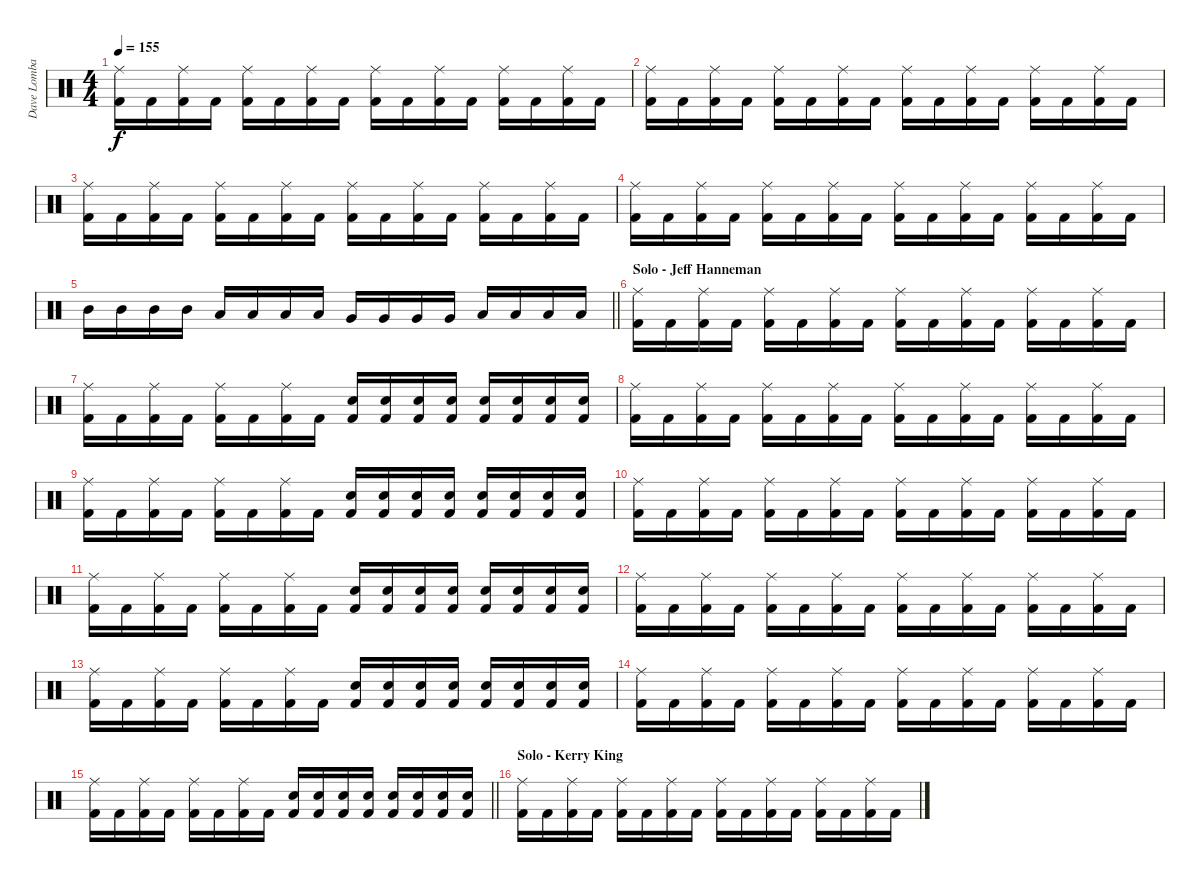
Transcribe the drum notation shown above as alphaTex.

\track ("Dave Lombardo (Drums)" "Dave Lomba") {instrument percussion}
\staff {score}
\articulation defaults
\ts (4 4)
\tempo 155
\clef neutral
\ks c
("Ride (middle)" "Kick (hit) 2").16{dy f} "Kick (hit) 2".16 ("Ride (middle)" "Kick (hit) 2").16 "Kick (hit) 2".16 ("Ride (middle)" "Kick (hit) 2").16 "Kick (hit) 2".16 ("Ride (middle)" "Kick (hit) 2").16 "Kick (hit) 2".16 ("Ride (middle)" "Kick (hit) 2").16 "Kick (hit) 2".16 ("Ride (middle)" "Kick (hit) 2").16 "Kick (hit) 2".16 ("Ride (middle)" "Kick (hit) 2").16 "Kick (hit) 2".16 ("Ride (middle)" "Kick (hit) 2").16 "Kick (hit) 2".16 |
("Ride (middle)" "Kick (hit) 2").16 "Kick (hit) 2".16 ("Ride (middle)" "Kick (hit) 2").16 "Kick (hit) 2".16 ("Ride (middle)" "Kick (hit) 2").16 "Kick (hit) 2".16 ("Ride (middle)" "Kick (hit) 2").16 "Kick (hit) 2".16 ("Ride (middle)" "Kick (hit) 2").16 "Kick (hit) 2".16 ("Ride (middle)" "Kick (hit) 2").16 "Kick (hit) 2".16 ("Ride (middle)" "Kick (hit) 2").16 "Kick (hit) 2".16 ("Ride (middle)" "Kick (hit) 2").16 "Kick (hit) 2".16 |
("Ride (middle)" "Kick (hit) 2").16 "Kick (hit) 2".16 ("Ride (middle)" "Kick (hit) 2").16 "Kick (hit) 2".16 ("Ride (middle)" "Kick (hit) 2").16 "Kick (hit) 2".16 ("Ride (middle)" "Kick (hit) 2").16 "Kick (hit) 2".16 ("Ride (middle)" "Kick (hit) 2").16 "Kick (hit) 2".16 ("Ride (middle)" "Kick (hit) 2").16 "Kick (hit) 2".16 ("Ride (middle)" "Kick (hit) 2").16 "Kick (hit) 2".16 ("Ride (middle)" "Kick (hit) 2").16 "Kick (hit) 2".16 |
("Ride (middle)" "Kick (hit) 2").16 "Kick (hit) 2".16 ("Ride (middle)" "Kick (hit) 2").16 "Kick (hit) 2".16 ("Ride (middle)" "Kick (hit) 2").16 "Kick (hit) 2".16 ("Ride (middle)" "Kick (hit) 2").16 "Kick (hit) 2".16 ("Ride (middle)" "Kick (hit) 2").16 "Kick (hit) 2".16 ("Ride (middle)" "Kick (hit) 2").16 "Kick (hit) 2".16 ("Ride (middle)" "Kick (hit) 2").16 "Kick (hit) 2".16 ("Ride (middle)" "Kick (hit) 2").16 "Kick (hit) 2".16 |
\barLineRight lightlight "Mid Tom (hit)".16 "Mid Tom (hit)".16 "Mid Tom (hit)".16 "Mid Tom (hit)".16 "Low Tom (hit)".16 "Low Tom (hit)".16 "Low Tom (hit)".16 "Low Tom (hit)".16 "Very Low Tom (hit)".16 "Very Low Tom (hit)".16 "Very Low Tom (hit)".16 "Very Low Tom (hit)".16 "Low Floor Tom (hit)".16 "Low Floor Tom (hit)".16 "Low Floor Tom (hit)".16 "Low Floor Tom (hit)".16
|
\section ("" "Solo - Jeff Hanneman")
("Ride (middle)" "Kick (hit) 2").16 "Kick (hit) 2".16 ("Ride (middle)" "Kick (hit) 2").16 "Kick (hit) 2".16 ("Ride (middle)" "Kick (hit) 2").16 "Kick (hit) 2".16 ("Ride (middle)" "Kick (hit) 2").16 "Kick (hit) 2".16 ("Ride (middle)" "Kick (hit) 2").16 "Kick (hit) 2".16 ("Ride (middle)" "Kick (hit) 2").16 "Kick (hit) 2".16 ("Ride (middle)" "Kick (hit) 2").16 "Kick (hit) 2".16 ("Ride (middle)" "Kick (hit) 2").16 "Kick (hit) 2".16 |
("Ride (middle)" "Kick (hit) 2").16 "Kick (hit) 2".16 ("Ride (middle)" "Kick (hit) 2").16 "Kick (hit) 2".16 ("Ride (middle)" "Kick (hit) 2").16 "Kick (hit) 2".16 ("Ride (middle)" "Kick (hit) 2").16 "Kick (hit) 2".16 ("Snare (hit) 2" "Kick (hit) 2").16 ("Snare (hit) 2" "Kick (hit) 2").16 ("Snare (hit) 2" "Kick (hit) 2").16 ("Snare (hit) 2" "Kick (hit) 2").16 ("Snare (hit) 2" "Kick (hit) 2").16 ("Snare (hit) 2" "Kick (hit) 2").16 ("Snare (hit) 2" "Kick (hit) 2").16 ("Snare (hit) 2" "Kick (hit) 2").16 |
("Ride (middle)" "Kick (hit) 2").16 "Kick (hit) 2".16 ("Ride (middle)" "Kick (hit) 2").16 "Kick (hit) 2".16 ("Ride (middle)" "Kick (hit) 2").16 "Kick (hit) 2".16 ("Ride (middle)" "Kick (hit) 2").16 "Kick (hit) 2".16 ("Ride (middle)" "Kick (hit) 2").16 "Kick (hit) 2".16 ("Ride (middle)" "Kick (hit) 2").16 "Kick (hit) 2".16 ("Ride (middle)" "Kick (hit) 2").16 "Kick (hit) 2".16 ("Ride (middle)" "Kick (hit) 2").16 "Kick (hit) 2".16 |
("Ride (middle)" "Kick (hit) 2").16 "Kick (hit) 2".16 ("Ride (middle)" "Kick (hit) 2").16 "Kick (hit) 2".16 ("Ride (middle)" "Kick (hit) 2").16 "Kick (hit) 2".16 ("Ride (middle)" "Kick (hit) 2").16 "Kick (hit) 2".16 ("Snare (hit) 2" "Kick (hit) 2").16 ("Snare (hit) 2" "Kick (hit) 2").16 ("Snare (hit) 2" "Kick (hit) 2").16 ("Snare (hit) 2" "Kick (hit) 2").16 ("Snare (hit) 2" "Kick (hit) 2").16 ("Snare (hit) 2" "Kick (hit) 2").16 ("Snare (hit) 2" "Kick (hit) 2").16 ("Snare (hit) 2" "Kick (hit) 2").16 |
("Ride (middle)" "Kick (hit) 2").16 "Kick (hit) 2".16 ("Ride (middle)" "Kick (hit) 2").16 "Kick (hit) 2".16 ("Ride (middle)" "Kick (hit) 2").16 "Kick (hit) 2".16 ("Ride (middle)" "Kick (hit) 2").16 "Kick (hit) 2".16 ("Ride (middle)" "Kick (hit) 2").16 "Kick (hit) 2".16 ("Ride (middle)" "Kick (hit) 2").16 "Kick (hit) 2".16 ("Ride (middle)" "Kick (hit) 2").16 "Kick (hit) 2".16 ("Ride (middle)" "Kick (hit) 2").16 "Kick (hit) 2".16 |
("Ride (middle)" "Kick (hit) 2").16 "Kick (hit) 2".16 ("Ride (middle)" "Kick (hit) 2").16 "Kick (hit) 2".16 ("Ride (middle)" "Kick (hit) 2").16 "Kick (hit) 2".16 ("Ride (middle)" "Kick (hit) 2").16 "Kick (hit) 2".16 ("Snare (hit) 2" "Kick (hit) 2").16 ("Snare (hit) 2" "Kick (hit) 2").16 ("Snare (hit) 2" "Kick (hit) 2").16 ("Snare (hit) 2" "Kick (hit) 2").16 ("Snare (hit) 2" "Kick (hit) 2").16 ("Snare (hit) 2" "Kick (hit) 2").16 ("Snare (hit) 2" "Kick (hit) 2").16 ("Snare (hit) 2" "Kick (hit) 2").16 |
("Ride (middle)" "Kick (hit) 2").16 "Kick (hit) 2".16 ("Ride (middle)" "Kick (hit) 2").16 "Kick (hit) 2".16 ("Ride (middle)" "Kick (hit) 2").16 "Kick (hit) 2".16 ("Ride (middle)" "Kick (hit) 2").16 "Kick (hit) 2".16 ("Ride (middle)" "Kick (hit) 2").16 "Kick (hit) 2".16 ("Ride (middle)" "Kick (hit) 2").16 "Kick (hit) 2".16 ("Ride (middle)" "Kick (hit) 2").16 "Kick (hit) 2".16 ("Ride (middle)" "Kick (hit) 2").16 "Kick (hit) 2".16 |
("Ride (middle)" "Kick (hit) 2").16 "Kick (hit) 2".16 ("Ride (middle)" "Kick (hit) 2").16 "Kick (hit) 2".16 ("Ride (middle)" "Kick (hit) 2").16 "Kick (hit) 2".16 ("Ride (middle)" "Kick (hit) 2").16 "Kick (hit) 2".16 ("Snare (hit) 2" "Kick (hit) 2").16 ("Snare (hit) 2" "Kick (hit) 2").16 ("Snare (hit) 2" "Kick (hit) 2").16 ("Snare (hit) 2" "Kick (hit) 2").16 ("Snare (hit) 2" "Kick (hit) 2").16 ("Snare (hit) 2" "Kick (hit) 2").16 ("Snare (hit) 2" "Kick (hit) 2").16 ("Snare (hit) 2" "Kick (hit) 2").16 |
("Ride (middle)" "Kick (hit) 2").16 "Kick (hit) 2".16 ("Ride (middle)" "Kick (hit) 2").16 "Kick (hit) 2".16 ("Ride (middle)" "Kick (hit) 2").16 "Kick (hit) 2".16 ("Ride (middle)" "Kick (hit) 2").16 "Kick (hit) 2".16 ("Ride (middle)" "Kick (hit) 2").16 "Kick (hit) 2".16 ("Ride (middle)" "Kick (hit) 2").16 "Kick (hit) 2".16 ("Ride (middle)" "Kick (hit) 2").16 "Kick (hit) 2".16 ("Ride (middle)" "Kick (hit) 2").16 "Kick (hit) 2".16 |
\barLineRight lightlight
("Ride (middle)" "Kick (hit) 2").16 "Kick (hit) 2".16 ("Ride (middle)" "Kick (hit) 2").16 "Kick (hit) 2".16 ("Ride (middle)" "Kick (hit) 2").16 "Kick (hit) 2".16 ("Ride (middle)" "Kick (hit) 2").16 "Kick (hit) 2".16 ("Snare (hit) 2" "Kick (hit) 2").16 ("Snare (hit) 2" "Kick (hit) 2").16 ("Snare (hit) 2" "Kick (hit) 2").16 ("Snare (hit) 2" "Kick (hit) 2").16 ("Snare (hit) 2" "Kick (hit) 2").16 ("Snare (hit) 2" "Kick (hit) 2").16 ("Snare (hit) 2" "Kick (hit) 2").16 ("Snare (hit) 2" "Kick (hit) 2").16 |
\section ("" "Solo - Kerry King")
("Ride (middle)" "Kick (hit) 2").16 "Kick (hit) 2".16 ("Ride (middle)" "Kick (hit) 2").16 "Kick (hit) 2".16 ("Ride (middle)" "Kick (hit) 2").16 "Kick (hit) 2".16 ("Ride (middle)" "Kick (hit) 2").16 "Kick (hit) 2".16 ("Ride (middle)" "Kick (hit) 2").16 "Kick (hit) 2".16 ("Ride (middle)" "Kick (hit) 2").16 "Kick (hit) 2".16 ("Ride (middle)" "Kick (hit) 2").16 "Kick (hit) 2".16 ("Ride (middle)" "Kick (hit) 2").16 "Kick (hit) 2".16
